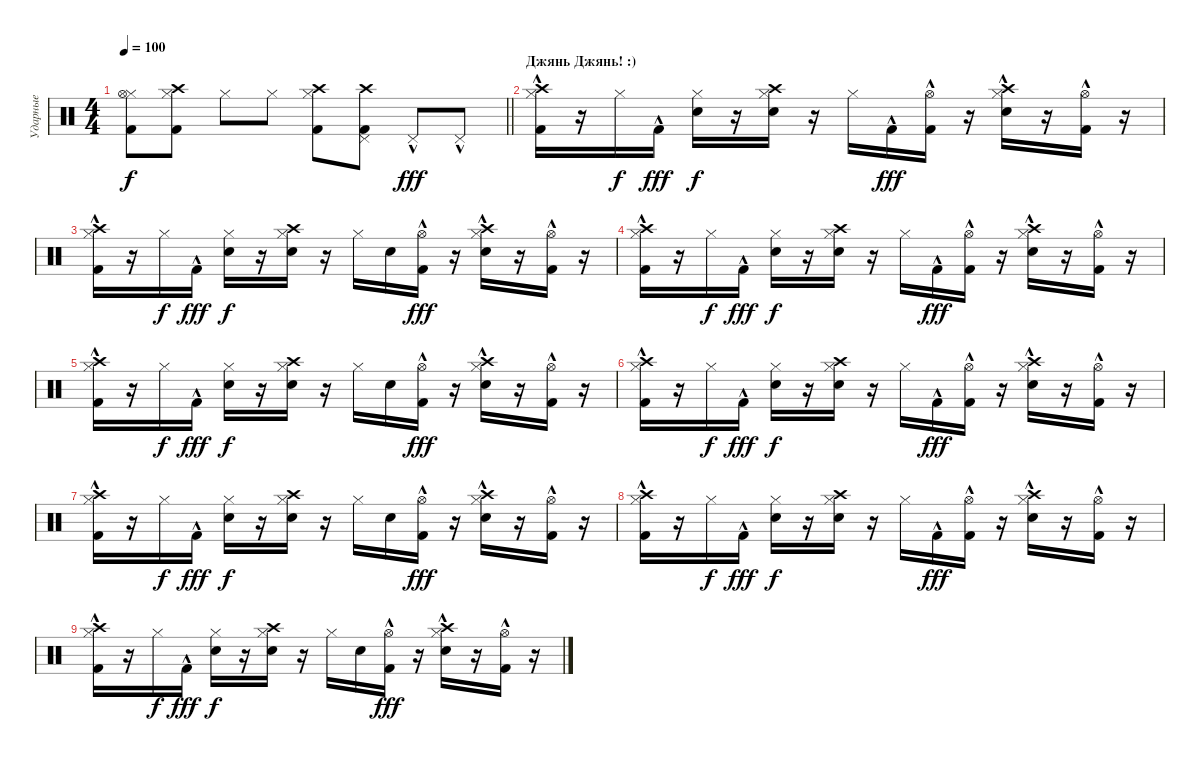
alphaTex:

\track ("Ударные" "Ударные") {instrument percussion}
\staff {score}
\articulation defaults
\ts (4 4)
\tempo 100
\clef neutral
\barLineRight lightlight
\ks c
("Hi-Hat (closed)" "Hi-Hat (open)" "Kick (hit) 2").8{dy f} ("Hi-Hat (closed)" "Crash high (hit)" "Kick (hit) 2").8 "Hi-Hat (closed)".8 "Hi-Hat (closed)".8 ("Hi-Hat (closed)" "Crash high (hit)" "Kick (hit) 2").8 ("Pedal Hi-Hat (hit)" "Crash high (hit)" "Kick (hit) 2").8 "Pedal Hi-Hat (hit)"{hac}.8{dy fff} "Pedal Hi-Hat (hit)"{hac}.8 |
\section ("" "Джянь Джянь! :)")
("Hi-Hat (closed)" "Crash high (hit)" "Kick (hit) 2"{hac}).16 r.16 "Hi-Hat (closed)".16{dy f} "Kick (hit) 2"{hac}.16{dy fff} ("Hi-Hat (closed)" "Electric Snare (hit)").16{dy f} r.16 ("Hi-Hat (closed)" "Crash high (hit)" "Electric Snare (hit)").16 r.16 "Hi-Hat (closed)".16 "Kick (hit) 2"{hac}.16{dy fff} ("Hi-Hat (open)" "Kick (hit) 2"{hac}).16 r.16 ("Hi-Hat (closed)"{hac} "Crash high (hit)" "Electric Snare (hit)").16 r.16 ("Hi-Hat (open)" "Kick (hit) 2"{hac}).16 r.16 |
("Hi-Hat (closed)" "Crash high (hit)" "Kick (hit) 2"{hac}).16 r.16 "Hi-Hat (closed)".16{dy f} "Kick (hit) 2"{hac}.16{dy fff} ("Hi-Hat (closed)" "Electric Snare (hit)").16{dy f} r.16 ("Hi-Hat (closed)" "Crash high (hit)" "Electric Snare (hit)").16 r.16 "Hi-Hat (closed)".16 "Electric Snare (hit)".16 ("Hi-Hat (open)" "Kick (hit) 2"{hac}).16{dy fff} r.16 ("Hi-Hat (closed)"{hac} "Crash high (hit)" "Electric Snare (hit)").16 r.16 ("Hi-Hat (open)" "Kick (hit) 2"{hac}).16 r.16 |
("Hi-Hat (closed)" "Crash high (hit)" "Kick (hit) 2"{hac}).16 r.16 "Hi-Hat (closed)".16{dy f} "Kick (hit) 2"{hac}.16{dy fff} ("Hi-Hat (closed)" "Electric Snare (hit)").16{dy f} r.16 ("Hi-Hat (closed)" "Crash high (hit)" "Electric Snare (hit)").16 r.16 "Hi-Hat (closed)".16 "Kick (hit) 2"{hac}.16{dy fff} ("Hi-Hat (open)" "Kick (hit) 2"{hac}).16 r.16 ("Hi-Hat (closed)"{hac} "Crash high (hit)" "Electric Snare (hit)").16 r.16 ("Hi-Hat (open)" "Kick (hit) 2"{hac}).16 r.16 |
("Hi-Hat (closed)" "Crash high (hit)" "Kick (hit) 2"{hac}).16 r.16 "Hi-Hat (closed)".16{dy f} "Kick (hit) 2"{hac}.16{dy fff} ("Hi-Hat (closed)" "Electric Snare (hit)").16{dy f} r.16 ("Hi-Hat (closed)" "Crash high (hit)" "Electric Snare (hit)").16 r.16 "Hi-Hat (closed)".16 "Electric Snare (hit)".16 ("Hi-Hat (open)" "Kick (hit) 2"{hac}).16{dy fff} r.16 ("Hi-Hat (closed)"{hac} "Crash high (hit)" "Electric Snare (hit)").16 r.16 ("Hi-Hat (open)" "Kick (hit) 2"{hac}).16 r.16 |
("Hi-Hat (closed)" "Crash high (hit)" "Kick (hit) 2"{hac}).16 r.16 "Hi-Hat (closed)".16{dy f} "Kick (hit) 2"{hac}.16{dy fff} ("Hi-Hat (closed)" "Electric Snare (hit)").16{dy f} r.16 ("Hi-Hat (closed)" "Crash high (hit)" "Electric Snare (hit)").16 r.16 "Hi-Hat (closed)".16 "Kick (hit) 2"{hac}.16{dy fff} ("Hi-Hat (open)" "Kick (hit) 2"{hac}).16 r.16 ("Hi-Hat (closed)"{hac} "Crash high (hit)" "Electric Snare (hit)").16 r.16 ("Hi-Hat (open)" "Kick (hit) 2"{hac}).16 r.16 |
("Hi-Hat (closed)" "Crash high (hit)" "Kick (hit) 2"{hac}).16 r.16 "Hi-Hat (closed)".16{dy f} "Kick (hit) 2"{hac}.16{dy fff} ("Hi-Hat (closed)" "Electric Snare (hit)").16{dy f} r.16 ("Hi-Hat (closed)" "Crash high (hit)" "Electric Snare (hit)").16 r.16 "Hi-Hat (closed)".16 "Electric Snare (hit)".16 ("Hi-Hat (open)" "Kick (hit) 2"{hac}).16{dy fff} r.16 ("Hi-Hat (closed)"{hac} "Crash high (hit)" "Electric Snare (hit)").16 r.16 ("Hi-Hat (open)" "Kick (hit) 2"{hac}).16 r.16 |
("Hi-Hat (closed)" "Crash high (hit)" "Kick (hit) 2"{hac}).16 r.16 "Hi-Hat (closed)".16{dy f} "Kick (hit) 2"{hac}.16{dy fff} ("Hi-Hat (closed)" "Electric Snare (hit)").16{dy f} r.16 ("Hi-Hat (closed)" "Crash high (hit)" "Electric Snare (hit)").16 r.16 "Hi-Hat (closed)".16 "Kick (hit) 2"{hac}.16{dy fff} ("Hi-Hat (open)" "Kick (hit) 2"{hac}).16 r.16 ("Hi-Hat (closed)"{hac} "Crash high (hit)" "Electric Snare (hit)").16 r.16 ("Hi-Hat (open)" "Kick (hit) 2"{hac}).16 r.16 |
("Hi-Hat (closed)" "Crash high (hit)" "Kick (hit) 2"{hac}).16 r.16 "Hi-Hat (closed)".16{dy f} "Kick (hit) 2"{hac}.16{dy fff} ("Hi-Hat (closed)" "Electric Snare (hit)").16{dy f} r.16 ("Hi-Hat (closed)" "Crash high (hit)" "Electric Snare (hit)").16 r.16 "Hi-Hat (closed)".16 "Electric Snare (hit)".16 ("Hi-Hat (open)" "Kick (hit) 2"{hac}).16{dy fff} r.16 ("Hi-Hat (closed)"{hac} "Crash high (hit)" "Electric Snare (hit)").16 r.16 ("Hi-Hat (open)" "Kick (hit) 2"{hac}).16 r.16
